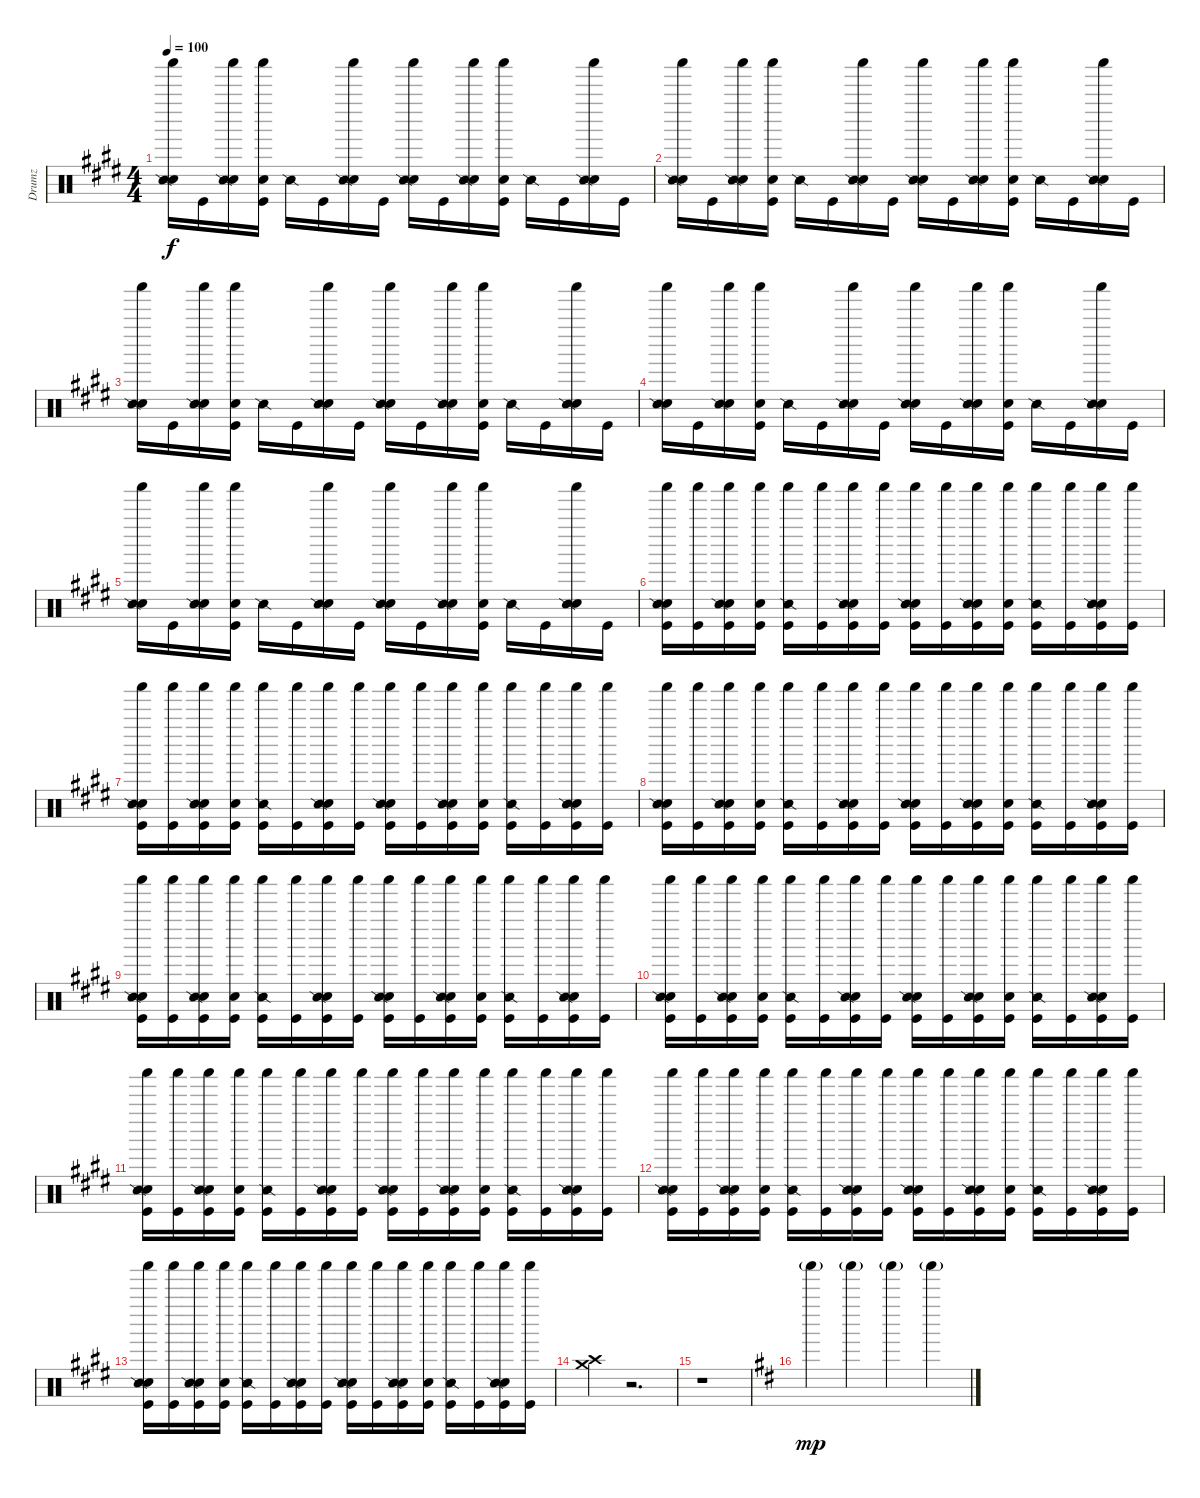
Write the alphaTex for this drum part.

\track ("Drumz" "Drumz") {instrument percussion}
\staff {score}
\articulation defaults
\ts (4 4)
\tempo 100
\clef neutral
\ks c#minor
("Shaker (hit)" "Hand Clap (hit)" "Snare (side stick) 2").16{dy f} "Kick (hit)".16 ("Shaker (hit)" "Hand Clap (hit)" "Snare (side stick) 2").16 ("Shaker (hit)" "Hand Clap (hit)" "Kick (hit)").16 "Snare (side stick) 2".16 "Kick (hit)".16 ("Shaker (hit)" "Hand Clap (hit)" "Snare (side stick) 2").16 "Kick (hit)".16 ("Shaker (hit)" "Hand Clap (hit)" "Snare (side stick) 2").16 "Kick (hit)".16 ("Shaker (hit)" "Hand Clap (hit)" "Snare (side stick) 2").16 ("Shaker (hit)" "Hand Clap (hit)" "Kick (hit)").16 "Snare (side stick) 2".16 "Kick (hit)".16 ("Shaker (hit)" "Hand Clap (hit)" "Snare (side stick) 2").16 "Kick (hit)".16 |
("Shaker (hit)" "Hand Clap (hit)" "Snare (side stick) 2").16 "Kick (hit)".16 ("Shaker (hit)" "Hand Clap (hit)" "Snare (side stick) 2").16 ("Shaker (hit)" "Hand Clap (hit)" "Kick (hit)").16 "Snare (side stick) 2".16 "Kick (hit)".16 ("Shaker (hit)" "Hand Clap (hit)" "Snare (side stick) 2").16 "Kick (hit)".16 ("Shaker (hit)" "Hand Clap (hit)" "Snare (side stick) 2").16 "Kick (hit)".16 ("Shaker (hit)" "Hand Clap (hit)" "Snare (side stick) 2").16 ("Shaker (hit)" "Hand Clap (hit)" "Kick (hit)").16 "Snare (side stick) 2".16 "Kick (hit)".16 ("Shaker (hit)" "Hand Clap (hit)" "Snare (side stick) 2").16 "Kick (hit)".16 |
("Shaker (hit)" "Hand Clap (hit)" "Snare (side stick) 2").16 "Kick (hit)".16 ("Shaker (hit)" "Hand Clap (hit)" "Snare (side stick) 2").16 ("Shaker (hit)" "Hand Clap (hit)" "Kick (hit)").16 "Snare (side stick) 2".16 "Kick (hit)".16 ("Shaker (hit)" "Hand Clap (hit)" "Snare (side stick) 2").16 "Kick (hit)".16 ("Shaker (hit)" "Hand Clap (hit)" "Snare (side stick) 2").16 "Kick (hit)".16 ("Shaker (hit)" "Hand Clap (hit)" "Snare (side stick) 2").16 ("Shaker (hit)" "Hand Clap (hit)" "Kick (hit)").16 "Snare (side stick) 2".16 "Kick (hit)".16 ("Shaker (hit)" "Hand Clap (hit)" "Snare (side stick) 2").16 "Kick (hit)".16 |
("Shaker (hit)" "Hand Clap (hit)" "Snare (side stick) 2").16 "Kick (hit)".16 ("Shaker (hit)" "Hand Clap (hit)" "Snare (side stick) 2").16 ("Shaker (hit)" "Hand Clap (hit)" "Kick (hit)").16 "Snare (side stick) 2".16 "Kick (hit)".16 ("Shaker (hit)" "Hand Clap (hit)" "Snare (side stick) 2").16 "Kick (hit)".16 ("Shaker (hit)" "Hand Clap (hit)" "Snare (side stick) 2").16 "Kick (hit)".16 ("Shaker (hit)" "Hand Clap (hit)" "Snare (side stick) 2").16 ("Shaker (hit)" "Hand Clap (hit)" "Kick (hit)").16 "Snare (side stick) 2".16 "Kick (hit)".16 ("Shaker (hit)" "Hand Clap (hit)" "Snare (side stick) 2").16 "Kick (hit)".16 |
("Shaker (hit)" "Hand Clap (hit)" "Snare (side stick) 2").16 "Kick (hit)".16 ("Shaker (hit)" "Hand Clap (hit)" "Snare (side stick) 2").16 ("Shaker (hit)" "Hand Clap (hit)" "Kick (hit)").16 "Snare (side stick) 2".16 "Kick (hit)".16 ("Shaker (hit)" "Hand Clap (hit)" "Snare (side stick) 2").16 "Kick (hit)".16 ("Shaker (hit)" "Hand Clap (hit)" "Snare (side stick) 2").16 "Kick (hit)".16 ("Shaker (hit)" "Hand Clap (hit)" "Snare (side stick) 2").16 ("Shaker (hit)" "Hand Clap (hit)" "Kick (hit)").16 "Snare (side stick) 2".16 "Kick (hit)".16 ("Shaker (hit)" "Hand Clap (hit)" "Snare (side stick) 2").16 "Kick (hit)".16 |
("Shaker (hit)" "Hand Clap (hit)" "Snare (side stick) 2" "Kick (hit)").16 ("Shaker (hit)" "Kick (hit)").16 ("Shaker (hit)" "Hand Clap (hit)" "Snare (side stick) 2" "Kick (hit)").16 ("Shaker (hit)" "Hand Clap (hit)" "Kick (hit)").16 ("Shaker (hit)" "Snare (side stick) 2" "Kick (hit)").16 ("Shaker (hit)" "Kick (hit)").16 ("Shaker (hit)" "Hand Clap (hit)" "Snare (side stick) 2" "Kick (hit)").16 ("Shaker (hit)" "Kick (hit)").16 ("Shaker (hit)" "Hand Clap (hit)" "Snare (side stick) 2" "Kick (hit)").16 ("Shaker (hit)" "Kick (hit)").16 ("Shaker (hit)" "Hand Clap (hit)" "Snare (side stick) 2" "Kick (hit)").16 ("Shaker (hit)" "Hand Clap (hit)" "Kick (hit)").16 ("Shaker (hit)" "Snare (side stick) 2" "Kick (hit)").16 ("Shaker (hit)" "Kick (hit)").16 ("Shaker (hit)" "Hand Clap (hit)" "Snare (side stick) 2" "Kick (hit)").16 ("Shaker (hit)" "Kick (hit)").16 |
("Shaker (hit)" "Hand Clap (hit)" "Snare (side stick) 2" "Kick (hit)").16 ("Shaker (hit)" "Kick (hit)").16 ("Shaker (hit)" "Hand Clap (hit)" "Snare (side stick) 2" "Kick (hit)").16 ("Shaker (hit)" "Hand Clap (hit)" "Kick (hit)").16 ("Shaker (hit)" "Snare (side stick) 2" "Kick (hit)").16 ("Shaker (hit)" "Kick (hit)").16 ("Shaker (hit)" "Hand Clap (hit)" "Snare (side stick) 2" "Kick (hit)").16 ("Shaker (hit)" "Kick (hit)").16 ("Shaker (hit)" "Hand Clap (hit)" "Snare (side stick) 2" "Kick (hit)").16 ("Shaker (hit)" "Kick (hit)").16 ("Shaker (hit)" "Hand Clap (hit)" "Snare (side stick) 2" "Kick (hit)").16 ("Shaker (hit)" "Hand Clap (hit)" "Kick (hit)").16 ("Shaker (hit)" "Snare (side stick) 2" "Kick (hit)").16 ("Shaker (hit)" "Kick (hit)").16 ("Shaker (hit)" "Hand Clap (hit)" "Snare (side stick) 2" "Kick (hit)").16 ("Shaker (hit)" "Kick (hit)").16 |
("Shaker (hit)" "Hand Clap (hit)" "Snare (side stick) 2" "Kick (hit)").16 ("Shaker (hit)" "Kick (hit)").16 ("Shaker (hit)" "Hand Clap (hit)" "Snare (side stick) 2" "Kick (hit)").16 ("Shaker (hit)" "Hand Clap (hit)" "Kick (hit)").16 ("Shaker (hit)" "Snare (side stick) 2" "Kick (hit)").16 ("Shaker (hit)" "Kick (hit)").16 ("Shaker (hit)" "Hand Clap (hit)" "Snare (side stick) 2" "Kick (hit)").16 ("Shaker (hit)" "Kick (hit)").16 ("Shaker (hit)" "Hand Clap (hit)" "Snare (side stick) 2" "Kick (hit)").16 ("Shaker (hit)" "Kick (hit)").16 ("Shaker (hit)" "Hand Clap (hit)" "Snare (side stick) 2" "Kick (hit)").16 ("Shaker (hit)" "Hand Clap (hit)" "Kick (hit)").16 ("Shaker (hit)" "Snare (side stick) 2" "Kick (hit)").16 ("Shaker (hit)" "Kick (hit)").16 ("Shaker (hit)" "Hand Clap (hit)" "Snare (side stick) 2" "Kick (hit)").16 ("Shaker (hit)" "Kick (hit)").16 |
("Shaker (hit)" "Hand Clap (hit)" "Snare (side stick) 2" "Kick (hit)").16 ("Shaker (hit)" "Kick (hit)").16 ("Shaker (hit)" "Hand Clap (hit)" "Snare (side stick) 2" "Kick (hit)").16 ("Shaker (hit)" "Hand Clap (hit)" "Kick (hit)").16 ("Shaker (hit)" "Snare (side stick) 2" "Kick (hit)").16 ("Shaker (hit)" "Kick (hit)").16 ("Shaker (hit)" "Hand Clap (hit)" "Snare (side stick) 2" "Kick (hit)").16 ("Shaker (hit)" "Kick (hit)").16 ("Shaker (hit)" "Hand Clap (hit)" "Snare (side stick) 2" "Kick (hit)").16 ("Shaker (hit)" "Kick (hit)").16 ("Shaker (hit)" "Hand Clap (hit)" "Snare (side stick) 2" "Kick (hit)").16 ("Shaker (hit)" "Hand Clap (hit)" "Kick (hit)").16 ("Shaker (hit)" "Snare (side stick) 2" "Kick (hit)").16 ("Shaker (hit)" "Kick (hit)").16 ("Shaker (hit)" "Hand Clap (hit)" "Snare (side stick) 2" "Kick (hit)").16 ("Shaker (hit)" "Kick (hit)").16 |
("Shaker (hit)" "Hand Clap (hit)" "Snare (side stick) 2" "Kick (hit)").16 ("Shaker (hit)" "Kick (hit)").16 ("Shaker (hit)" "Hand Clap (hit)" "Snare (side stick) 2" "Kick (hit)").16 ("Shaker (hit)" "Hand Clap (hit)" "Kick (hit)").16 ("Shaker (hit)" "Snare (side stick) 2" "Kick (hit)").16 ("Shaker (hit)" "Kick (hit)").16 ("Shaker (hit)" "Hand Clap (hit)" "Snare (side stick) 2" "Kick (hit)").16 ("Shaker (hit)" "Kick (hit)").16 ("Shaker (hit)" "Hand Clap (hit)" "Snare (side stick) 2" "Kick (hit)").16 ("Shaker (hit)" "Kick (hit)").16 ("Shaker (hit)" "Hand Clap (hit)" "Snare (side stick) 2" "Kick (hit)").16 ("Shaker (hit)" "Hand Clap (hit)" "Kick (hit)").16 ("Shaker (hit)" "Snare (side stick) 2" "Kick (hit)").16 ("Shaker (hit)" "Kick (hit)").16 ("Shaker (hit)" "Hand Clap (hit)" "Snare (side stick) 2" "Kick (hit)").16 ("Shaker (hit)" "Kick (hit)").16 |
("Shaker (hit)" "Hand Clap (hit)" "Snare (side stick) 2" "Kick (hit)").16 ("Shaker (hit)" "Kick (hit)").16 ("Shaker (hit)" "Hand Clap (hit)" "Snare (side stick) 2" "Kick (hit)").16 ("Shaker (hit)" "Hand Clap (hit)" "Kick (hit)").16 ("Shaker (hit)" "Snare (side stick) 2" "Kick (hit)").16 ("Shaker (hit)" "Kick (hit)").16 ("Shaker (hit)" "Hand Clap (hit)" "Snare (side stick) 2" "Kick (hit)").16 ("Shaker (hit)" "Kick (hit)").16 ("Shaker (hit)" "Hand Clap (hit)" "Snare (side stick) 2" "Kick (hit)").16 ("Shaker (hit)" "Kick (hit)").16 ("Shaker (hit)" "Hand Clap (hit)" "Snare (side stick) 2" "Kick (hit)").16 ("Shaker (hit)" "Hand Clap (hit)" "Kick (hit)").16 ("Shaker (hit)" "Snare (side stick) 2" "Kick (hit)").16 ("Shaker (hit)" "Kick (hit)").16 ("Shaker (hit)" "Hand Clap (hit)" "Snare (side stick) 2" "Kick (hit)").16 ("Shaker (hit)" "Kick (hit)").16 |
("Shaker (hit)" "Hand Clap (hit)" "Snare (side stick) 2" "Kick (hit)").16 ("Shaker (hit)" "Kick (hit)").16 ("Shaker (hit)" "Hand Clap (hit)" "Snare (side stick) 2" "Kick (hit)").16 ("Shaker (hit)" "Hand Clap (hit)" "Kick (hit)").16 ("Shaker (hit)" "Snare (side stick) 2" "Kick (hit)").16 ("Shaker (hit)" "Kick (hit)").16 ("Shaker (hit)" "Hand Clap (hit)" "Snare (side stick) 2" "Kick (hit)").16 ("Shaker (hit)" "Kick (hit)").16 ("Shaker (hit)" "Hand Clap (hit)" "Snare (side stick) 2" "Kick (hit)").16 ("Shaker (hit)" "Kick (hit)").16 ("Shaker (hit)" "Hand Clap (hit)" "Snare (side stick) 2" "Kick (hit)").16 ("Shaker (hit)" "Hand Clap (hit)" "Kick (hit)").16 ("Shaker (hit)" "Snare (side stick) 2" "Kick (hit)").16 ("Shaker (hit)" "Kick (hit)").16 ("Shaker (hit)" "Hand Clap (hit)" "Snare (side stick) 2" "Kick (hit)").16 ("Shaker (hit)" "Kick (hit)").16 |
("Shaker (hit)" "Hand Clap (hit)" "Snare (side stick) 2" "Kick (hit)").16 ("Shaker (hit)" "Kick (hit)").16 ("Shaker (hit)" "Hand Clap (hit)" "Snare (side stick) 2" "Kick (hit)").16 ("Shaker (hit)" "Hand Clap (hit)" "Kick (hit)").16 ("Shaker (hit)" "Snare (side stick) 2" "Kick (hit)").16 ("Shaker (hit)" "Kick (hit)").16 ("Shaker (hit)" "Hand Clap (hit)" "Snare (side stick) 2" "Kick (hit)").16 ("Shaker (hit)" "Kick (hit)").16 ("Shaker (hit)" "Hand Clap (hit)" "Snare (side stick) 2" "Kick (hit)").16 ("Shaker (hit)" "Kick (hit)").16 ("Shaker (hit)" "Hand Clap (hit)" "Snare (side stick) 2" "Kick (hit)").16 ("Shaker (hit)" "Hand Clap (hit)" "Kick (hit)").16 ("Shaker (hit)" "Snare (side stick) 2" "Kick (hit)").16 ("Shaker (hit)" "Kick (hit)").16 ("Shaker (hit)" "Hand Clap (hit)" "Snare (side stick) 2" "Kick (hit)").16 ("Shaker (hit)" "Kick (hit)").16 |
("Crash high (hit)" "Crash medium (hit)").4 r.2{d} |
r.1 |
\ks d "Shaker (hit)"{g}.4{dy mp} "Shaker (hit)"{g}.4 "Shaker (hit)"{g}.4 "Shaker (hit)"{g}.4
